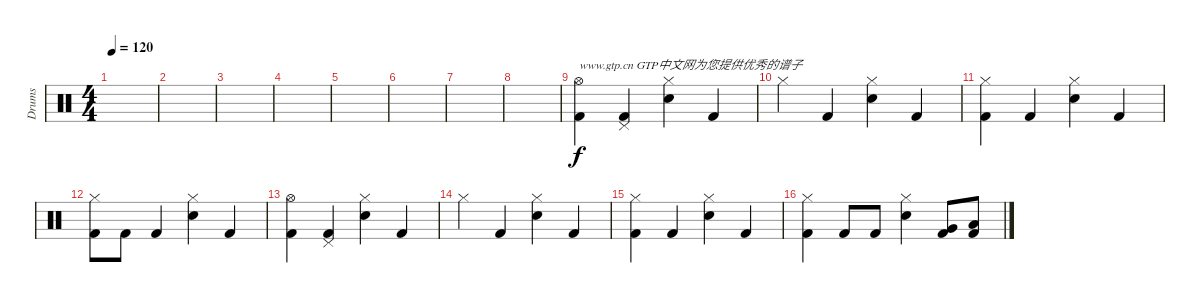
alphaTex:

\track ("Drums" "Drums") {instrument percussion}
\staff {score}
\articulation defaults
\ts (4 4)
\tempo 120
\clef neutral
\ks c
|
|
|
|
|
|
|
|
("Hi-Hat (open)" "Kick (hit) 2").4{txt "www.gtp.cn GTP中文网为您提供优秀的谱子"} ("Pedal Hi-Hat (hit)" "Kick (hit) 2").4 ("Hi-Hat (closed)" "Electric Snare (hit)").4 "Kick (hit) 2".4 |
"Hi-Hat (closed)".4 "Kick (hit) 2".4 ("Hi-Hat (closed)" "Electric Snare (hit)").4 "Kick (hit) 2".4 |
("Hi-Hat (closed)" "Kick (hit) 2").4 "Kick (hit) 2".4 ("Hi-Hat (closed)" "Electric Snare (hit)").4 "Kick (hit) 2".4 |
("Hi-Hat (closed)" "Kick (hit) 2").8 "Kick (hit) 2".8 "Kick (hit) 2".4 ("Hi-Hat (closed)" "Electric Snare (hit)").4 "Kick (hit) 2".4 |
("Hi-Hat (open)" "Kick (hit) 2").4 ("Pedal Hi-Hat (hit)" "Kick (hit) 2").4 ("Hi-Hat (closed)" "Electric Snare (hit)").4 "Kick (hit) 2".4 |
"Hi-Hat (closed)".4 "Kick (hit) 2".4 ("Hi-Hat (closed)" "Electric Snare (hit)").4 "Kick (hit) 2".4 |
("Hi-Hat (closed)" "Kick (hit) 2").4 "Kick (hit) 2".4 ("Hi-Hat (closed)" "Electric Snare (hit)").4 "Kick (hit) 2".4 |
("Hi-Hat (closed)" "Kick (hit) 2").4 "Kick (hit) 2".8 "Kick (hit) 2".8 ("Hi-Hat (closed)" "Electric Snare (hit)").4 ("Very Low Tom (hit)" "Kick (hit) 2").8 ("Low Floor Tom (hit)" "Kick (hit) 2").8
